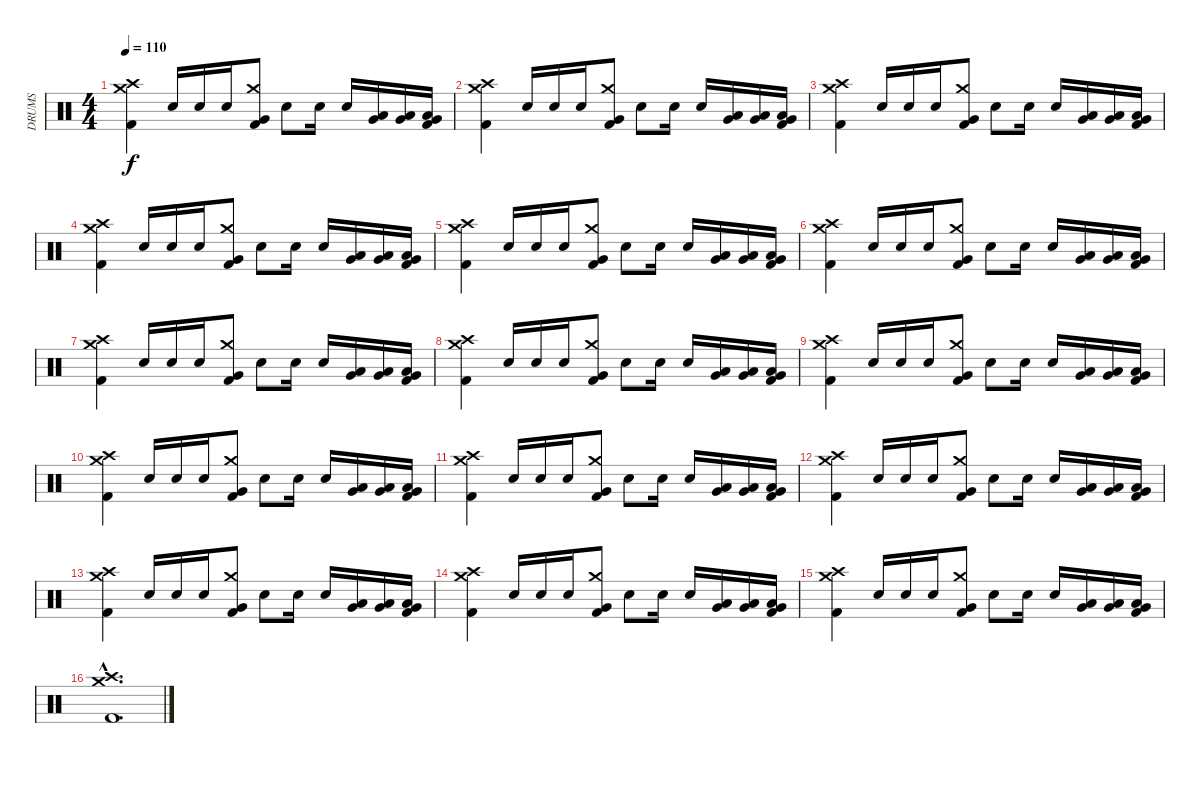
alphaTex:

\track ("DRUMS" "DRUMS") {instrument percussion}
\staff {score}
\articulation defaults
\ts (4 4)
\tempo 110
\clef neutral
\ks c
("Kick (hit) 2" "Crash medium (hit)" "Crash high (hit)").4{dy f} "Electric Snare (hit)".16 "Electric Snare (hit)".16 "Electric Snare (hit)".16 ("Very Low Tom (hit)" "Kick (hit) 2" "Crash medium (hit)").8 "Electric Snare (hit)".8 "Electric Snare (hit)".16 "Electric Snare (hit)".16 ("Very Low Tom (hit)" "Low Tom (hit)").16 ("Very Low Tom (hit)" "Low Tom (hit)").16 ("Very Low Tom (hit)" "Low Tom (hit)" "Kick (hit) 2").16 |
("Kick (hit) 2" "Crash medium (hit)" "Crash high (hit)").4 "Electric Snare (hit)".16 "Electric Snare (hit)".16 "Electric Snare (hit)".16 ("Very Low Tom (hit)" "Kick (hit) 2" "Crash medium (hit)").8 "Electric Snare (hit)".8 "Electric Snare (hit)".16 "Electric Snare (hit)".16 ("Very Low Tom (hit)" "Low Tom (hit)").16 ("Very Low Tom (hit)" "Low Tom (hit)").16 ("Very Low Tom (hit)" "Low Tom (hit)" "Kick (hit) 2").16 |
("Kick (hit) 2" "Crash medium (hit)" "Crash high (hit)").4 "Electric Snare (hit)".16 "Electric Snare (hit)".16 "Electric Snare (hit)".16 ("Very Low Tom (hit)" "Kick (hit) 2" "Crash medium (hit)").8 "Electric Snare (hit)".8 "Electric Snare (hit)".16 "Electric Snare (hit)".16 ("Very Low Tom (hit)" "Low Tom (hit)").16 ("Very Low Tom (hit)" "Low Tom (hit)").16 ("Very Low Tom (hit)" "Low Tom (hit)" "Kick (hit) 2").16 |
("Kick (hit) 2" "Crash medium (hit)" "Crash high (hit)").4 "Electric Snare (hit)".16 "Electric Snare (hit)".16 "Electric Snare (hit)".16 ("Very Low Tom (hit)" "Kick (hit) 2" "Crash medium (hit)").8 "Electric Snare (hit)".8 "Electric Snare (hit)".16 "Electric Snare (hit)".16 ("Very Low Tom (hit)" "Low Tom (hit)").16 ("Very Low Tom (hit)" "Low Tom (hit)").16 ("Very Low Tom (hit)" "Low Tom (hit)" "Kick (hit) 2").16 |
("Kick (hit) 2" "Crash medium (hit)" "Crash high (hit)").4 "Electric Snare (hit)".16 "Electric Snare (hit)".16 "Electric Snare (hit)".16 ("Very Low Tom (hit)" "Kick (hit) 2" "Crash medium (hit)").8 "Electric Snare (hit)".8 "Electric Snare (hit)".16 "Electric Snare (hit)".16 ("Very Low Tom (hit)" "Low Tom (hit)").16 ("Very Low Tom (hit)" "Low Tom (hit)").16 ("Very Low Tom (hit)" "Low Tom (hit)" "Kick (hit) 2").16 |
("Kick (hit) 2" "Crash medium (hit)" "Crash high (hit)").4 "Electric Snare (hit)".16 "Electric Snare (hit)".16 "Electric Snare (hit)".16 ("Very Low Tom (hit)" "Kick (hit) 2" "Crash medium (hit)").8 "Electric Snare (hit)".8 "Electric Snare (hit)".16 "Electric Snare (hit)".16 ("Very Low Tom (hit)" "Low Tom (hit)").16 ("Very Low Tom (hit)" "Low Tom (hit)").16 ("Very Low Tom (hit)" "Low Tom (hit)" "Kick (hit) 2").16 |
("Kick (hit) 2" "Crash medium (hit)" "Crash high (hit)").4 "Electric Snare (hit)".16 "Electric Snare (hit)".16 "Electric Snare (hit)".16 ("Very Low Tom (hit)" "Kick (hit) 2" "Crash medium (hit)").8 "Electric Snare (hit)".8 "Electric Snare (hit)".16 "Electric Snare (hit)".16 ("Very Low Tom (hit)" "Low Tom (hit)").16 ("Very Low Tom (hit)" "Low Tom (hit)").16 ("Very Low Tom (hit)" "Low Tom (hit)" "Kick (hit) 2").16 |
("Kick (hit) 2" "Crash medium (hit)" "Crash high (hit)").4 "Electric Snare (hit)".16 "Electric Snare (hit)".16 "Electric Snare (hit)".16 ("Very Low Tom (hit)" "Kick (hit) 2" "Crash medium (hit)").8 "Electric Snare (hit)".8 "Electric Snare (hit)".16 "Electric Snare (hit)".16 ("Very Low Tom (hit)" "Low Tom (hit)").16 ("Very Low Tom (hit)" "Low Tom (hit)").16 ("Very Low Tom (hit)" "Low Tom (hit)" "Kick (hit) 2").16 |
("Kick (hit) 2" "Crash medium (hit)" "Crash high (hit)").4 "Electric Snare (hit)".16 "Electric Snare (hit)".16 "Electric Snare (hit)".16 ("Very Low Tom (hit)" "Kick (hit) 2" "Crash medium (hit)").8 "Electric Snare (hit)".8 "Electric Snare (hit)".16 "Electric Snare (hit)".16 ("Very Low Tom (hit)" "Low Tom (hit)").16 ("Very Low Tom (hit)" "Low Tom (hit)").16 ("Very Low Tom (hit)" "Low Tom (hit)" "Kick (hit) 2").16 |
("Kick (hit) 2" "Crash medium (hit)" "Crash high (hit)").4 "Electric Snare (hit)".16 "Electric Snare (hit)".16 "Electric Snare (hit)".16 ("Very Low Tom (hit)" "Kick (hit) 2" "Crash medium (hit)").8 "Electric Snare (hit)".8 "Electric Snare (hit)".16 "Electric Snare (hit)".16 ("Very Low Tom (hit)" "Low Tom (hit)").16 ("Very Low Tom (hit)" "Low Tom (hit)").16 ("Very Low Tom (hit)" "Low Tom (hit)" "Kick (hit) 2").16 |
("Kick (hit) 2" "Crash medium (hit)" "Crash high (hit)").4 "Electric Snare (hit)".16 "Electric Snare (hit)".16 "Electric Snare (hit)".16 ("Very Low Tom (hit)" "Kick (hit) 2" "Crash medium (hit)").8 "Electric Snare (hit)".8 "Electric Snare (hit)".16 "Electric Snare (hit)".16 ("Very Low Tom (hit)" "Low Tom (hit)").16 ("Very Low Tom (hit)" "Low Tom (hit)").16 ("Very Low Tom (hit)" "Low Tom (hit)" "Kick (hit) 2").16 |
("Kick (hit) 2" "Crash medium (hit)" "Crash high (hit)").4 "Electric Snare (hit)".16 "Electric Snare (hit)".16 "Electric Snare (hit)".16 ("Very Low Tom (hit)" "Kick (hit) 2" "Crash medium (hit)").8 "Electric Snare (hit)".8 "Electric Snare (hit)".16 "Electric Snare (hit)".16 ("Very Low Tom (hit)" "Low Tom (hit)").16 ("Very Low Tom (hit)" "Low Tom (hit)").16 ("Very Low Tom (hit)" "Low Tom (hit)" "Kick (hit) 2").16 |
("Kick (hit) 2" "Crash medium (hit)" "Crash high (hit)").4 "Electric Snare (hit)".16 "Electric Snare (hit)".16 "Electric Snare (hit)".16 ("Very Low Tom (hit)" "Kick (hit) 2" "Crash medium (hit)").8 "Electric Snare (hit)".8 "Electric Snare (hit)".16 "Electric Snare (hit)".16 ("Very Low Tom (hit)" "Low Tom (hit)").16 ("Very Low Tom (hit)" "Low Tom (hit)").16 ("Very Low Tom (hit)" "Low Tom (hit)" "Kick (hit) 2").16 |
("Kick (hit) 2" "Crash medium (hit)" "Crash high (hit)").4 "Electric Snare (hit)".16 "Electric Snare (hit)".16 "Electric Snare (hit)".16 ("Very Low Tom (hit)" "Kick (hit) 2" "Crash medium (hit)").8 "Electric Snare (hit)".8 "Electric Snare (hit)".16 "Electric Snare (hit)".16 ("Very Low Tom (hit)" "Low Tom (hit)").16 ("Very Low Tom (hit)" "Low Tom (hit)").16 ("Very Low Tom (hit)" "Low Tom (hit)" "Kick (hit) 2").16 |
("Kick (hit) 2" "Crash medium (hit)" "Crash high (hit)").4 "Electric Snare (hit)".16 "Electric Snare (hit)".16 "Electric Snare (hit)".16 ("Very Low Tom (hit)" "Kick (hit) 2" "Crash medium (hit)").8 "Electric Snare (hit)".8 "Electric Snare (hit)".16 "Electric Snare (hit)".16 ("Very Low Tom (hit)" "Low Tom (hit)").16 ("Very Low Tom (hit)" "Low Tom (hit)").16 ("Very Low Tom (hit)" "Low Tom (hit)" "Kick (hit) 2").16 |
("Kick (hit) 2"{hac} "Crash high (hit)"{hac} "Crash medium (hit)"{hac}).1{d}
